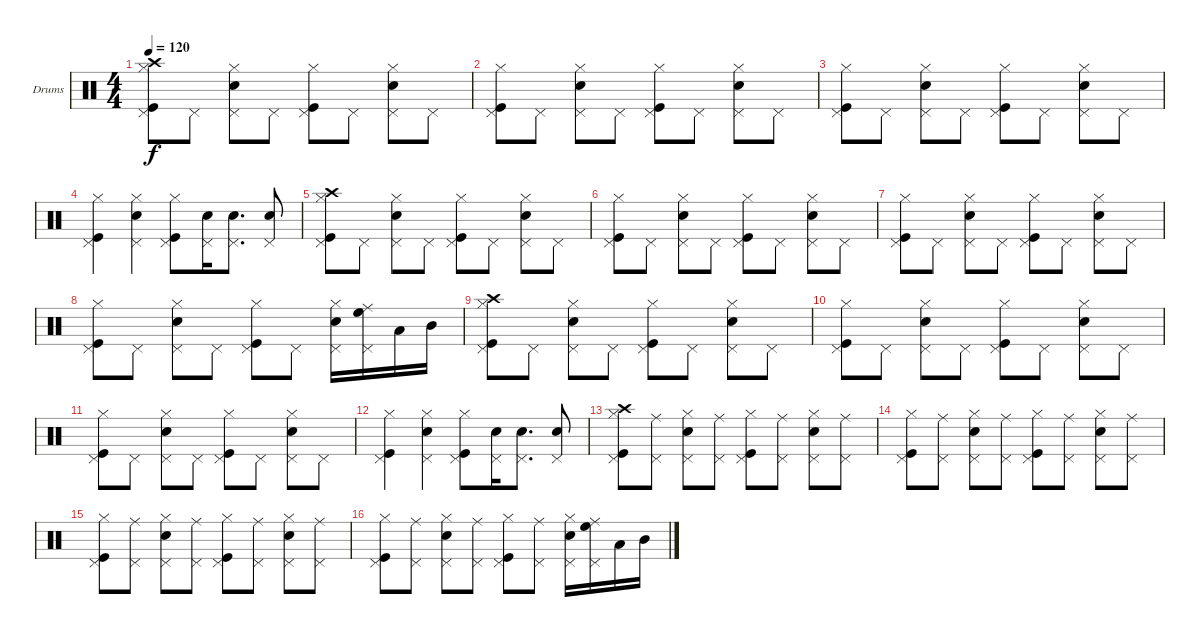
\defaultSystemsLayout 4
\bracketExtendMode groupsimilarinstruments
\firstSystemTrackNameOrientation horizontal
\otherSystemsTrackNameOrientation horizontal
\track ("Drumkit" "Drums") {instrument percussion}
\staff {score}
\articulation defaults
\ts (4 4)
\tempo 120
\clef neutral
\ks c
("Hi-Hat (closed)" "Crash high (hit)" "Kick (hit)" "Pedal Hi-Hat (hit)").8{dy f} "Pedal Hi-Hat (hit)".8 ("Snare (hit) 2" "Hi-Hat (closed)" "Pedal Hi-Hat (hit)").8 "Pedal Hi-Hat (hit)".8 ("Kick (hit)" "Hi-Hat (closed)" "Pedal Hi-Hat (hit)").8 "Pedal Hi-Hat (hit)".8 ("Snare (hit) 2" "Hi-Hat (closed)" "Pedal Hi-Hat (hit)").8 "Pedal Hi-Hat (hit)".8 |
("Hi-Hat (closed)" "Kick (hit)" "Pedal Hi-Hat (hit)").8 "Pedal Hi-Hat (hit)".8 ("Snare (hit) 2" "Hi-Hat (closed)" "Pedal Hi-Hat (hit)").8 "Pedal Hi-Hat (hit)".8 ("Kick (hit)" "Hi-Hat (closed)" "Pedal Hi-Hat (hit)").8 "Pedal Hi-Hat (hit)".8 ("Snare (hit) 2" "Hi-Hat (closed)" "Pedal Hi-Hat (hit)").8 "Pedal Hi-Hat (hit)".8 |
("Hi-Hat (closed)" "Kick (hit)" "Pedal Hi-Hat (hit)").8 "Pedal Hi-Hat (hit)".8 ("Snare (hit) 2" "Hi-Hat (closed)" "Pedal Hi-Hat (hit)").8 "Pedal Hi-Hat (hit)".8 ("Kick (hit)" "Hi-Hat (closed)" "Pedal Hi-Hat (hit)").8 "Pedal Hi-Hat (hit)".8 ("Snare (hit) 2" "Hi-Hat (closed)" "Pedal Hi-Hat (hit)").8 "Pedal Hi-Hat (hit)".8 |
("Hi-Hat (closed)" "Kick (hit)" "Pedal Hi-Hat (hit)").4 ("Hi-Hat (closed)" "Snare (hit) 2" "Pedal Hi-Hat (hit)").4 ("Hi-Hat (closed)" "Kick (hit)" "Pedal Hi-Hat (hit)").8 ("Pedal Hi-Hat (hit)" "Snare (hit) 2").16 ("Pedal Hi-Hat (hit)" "Snare (hit) 2").8{d} ("Pedal Hi-Hat (hit)" "Snare (hit) 2").8 |
("Hi-Hat (closed)" "Crash high (hit)" "Kick (hit)" "Pedal Hi-Hat (hit)").8 "Pedal Hi-Hat (hit)".8 ("Snare (hit) 2" "Hi-Hat (closed)" "Pedal Hi-Hat (hit)").8 "Pedal Hi-Hat (hit)".8 ("Kick (hit)" "Hi-Hat (closed)" "Pedal Hi-Hat (hit)").8 "Pedal Hi-Hat (hit)".8 ("Snare (hit) 2" "Hi-Hat (closed)" "Pedal Hi-Hat (hit)").8 "Pedal Hi-Hat (hit)".8 |
("Hi-Hat (closed)" "Kick (hit)" "Pedal Hi-Hat (hit)").8 "Pedal Hi-Hat (hit)".8 ("Snare (hit) 2" "Hi-Hat (closed)" "Pedal Hi-Hat (hit)").8 "Pedal Hi-Hat (hit)".8 ("Kick (hit)" "Hi-Hat (closed)" "Pedal Hi-Hat (hit)").8 "Pedal Hi-Hat (hit)".8 ("Snare (hit) 2" "Hi-Hat (closed)" "Pedal Hi-Hat (hit)").8 "Pedal Hi-Hat (hit)".8 |
("Hi-Hat (closed)" "Kick (hit)" "Pedal Hi-Hat (hit)").8 "Pedal Hi-Hat (hit)".8 ("Snare (hit) 2" "Hi-Hat (closed)" "Pedal Hi-Hat (hit)").8 "Pedal Hi-Hat (hit)".8 ("Kick (hit)" "Hi-Hat (closed)" "Pedal Hi-Hat (hit)").8 "Pedal Hi-Hat (hit)".8 ("Snare (hit) 2" "Hi-Hat (closed)" "Pedal Hi-Hat (hit)").8 "Pedal Hi-Hat (hit)".8 |
("Hi-Hat (closed)" "Kick (hit)" "Pedal Hi-Hat (hit)").8 "Pedal Hi-Hat (hit)".8 ("Snare (hit) 2" "Hi-Hat (closed)" "Pedal Hi-Hat (hit)").8 "Pedal Hi-Hat (hit)".8 ("Kick (hit)" "Hi-Hat (closed)" "Pedal Hi-Hat (hit)").8 "Pedal Hi-Hat (hit)".8 ("Snare (hit) 2" "Hi-Hat (closed)" "Pedal Hi-Hat (hit)").16 ("Pedal Hi-Hat (hit)" "Ride (middle)" "High Floor Tom (hit)").16 "Low Tom (hit)".16 "Mid Tom (hit)".16 |
("Hi-Hat (closed)" "Crash high (hit)" "Kick (hit)" "Pedal Hi-Hat (hit)").8 "Pedal Hi-Hat (hit)".8 ("Snare (hit) 2" "Hi-Hat (closed)" "Pedal Hi-Hat (hit)").8 "Pedal Hi-Hat (hit)".8 ("Kick (hit)" "Hi-Hat (closed)" "Pedal Hi-Hat (hit)").8 "Pedal Hi-Hat (hit)".8 ("Snare (hit) 2" "Hi-Hat (closed)" "Pedal Hi-Hat (hit)").8 "Pedal Hi-Hat (hit)".8 |
("Hi-Hat (closed)" "Kick (hit)" "Pedal Hi-Hat (hit)").8 "Pedal Hi-Hat (hit)".8 ("Snare (hit) 2" "Hi-Hat (closed)" "Pedal Hi-Hat (hit)").8 "Pedal Hi-Hat (hit)".8 ("Kick (hit)" "Hi-Hat (closed)" "Pedal Hi-Hat (hit)").8 "Pedal Hi-Hat (hit)".8 ("Snare (hit) 2" "Hi-Hat (closed)" "Pedal Hi-Hat (hit)").8 "Pedal Hi-Hat (hit)".8 |
("Hi-Hat (closed)" "Kick (hit)" "Pedal Hi-Hat (hit)").8 "Pedal Hi-Hat (hit)".8 ("Snare (hit) 2" "Hi-Hat (closed)" "Pedal Hi-Hat (hit)").8 "Pedal Hi-Hat (hit)".8 ("Kick (hit)" "Hi-Hat (closed)" "Pedal Hi-Hat (hit)").8 "Pedal Hi-Hat (hit)".8 ("Snare (hit) 2" "Hi-Hat (closed)" "Pedal Hi-Hat (hit)").8 "Pedal Hi-Hat (hit)".8 |
("Hi-Hat (closed)" "Kick (hit)" "Pedal Hi-Hat (hit)").4 ("Hi-Hat (closed)" "Snare (hit) 2" "Pedal Hi-Hat (hit)").4 ("Hi-Hat (closed)" "Kick (hit)" "Pedal Hi-Hat (hit)").8 ("Pedal Hi-Hat (hit)" "Snare (hit) 2").16 ("Pedal Hi-Hat (hit)" "Snare (hit) 2").8{d} ("Pedal Hi-Hat (hit)" "Snare (hit) 2").8 |
("Hi-Hat (closed)" "Crash high (hit)" "Kick (hit)" "Pedal Hi-Hat (hit)").8 ("Pedal Hi-Hat (hit)" "Ride (middle)").8 ("Snare (hit) 2" "Hi-Hat (closed)" "Pedal Hi-Hat (hit)").8 ("Pedal Hi-Hat (hit)" "Ride (middle)").8 ("Kick (hit)" "Hi-Hat (closed)" "Pedal Hi-Hat (hit)").8 ("Pedal Hi-Hat (hit)" "Ride (middle)").8 ("Snare (hit) 2" "Hi-Hat (closed)" "Pedal Hi-Hat (hit)").8 ("Pedal Hi-Hat (hit)" "Ride (middle)").8 |
("Hi-Hat (closed)" "Kick (hit)" "Pedal Hi-Hat (hit)").8 ("Pedal Hi-Hat (hit)" "Ride (middle)").8 ("Snare (hit) 2" "Hi-Hat (closed)" "Pedal Hi-Hat (hit)").8 ("Pedal Hi-Hat (hit)" "Ride (middle)").8 ("Kick (hit)" "Hi-Hat (closed)" "Pedal Hi-Hat (hit)").8 ("Pedal Hi-Hat (hit)" "Ride (middle)").8 ("Snare (hit) 2" "Hi-Hat (closed)" "Pedal Hi-Hat (hit)").8 ("Pedal Hi-Hat (hit)" "Ride (middle)").8 |
("Hi-Hat (closed)" "Kick (hit)" "Pedal Hi-Hat (hit)").8 ("Pedal Hi-Hat (hit)" "Ride (middle)").8 ("Snare (hit) 2" "Hi-Hat (closed)" "Pedal Hi-Hat (hit)").8 ("Pedal Hi-Hat (hit)" "Ride (middle)").8 ("Kick (hit)" "Hi-Hat (closed)" "Pedal Hi-Hat (hit)").8 ("Pedal Hi-Hat (hit)" "Ride (middle)").8 ("Snare (hit) 2" "Hi-Hat (closed)" "Pedal Hi-Hat (hit)").8 ("Pedal Hi-Hat (hit)" "Ride (middle)").8 |
("Hi-Hat (closed)" "Kick (hit)" "Pedal Hi-Hat (hit)").8 ("Pedal Hi-Hat (hit)" "Ride (middle)").8 ("Snare (hit) 2" "Hi-Hat (closed)" "Pedal Hi-Hat (hit)").8 ("Pedal Hi-Hat (hit)" "Ride (middle)").8 ("Kick (hit)" "Hi-Hat (closed)" "Pedal Hi-Hat (hit)").8 ("Pedal Hi-Hat (hit)" "Ride (middle)").8 ("Snare (hit) 2" "Hi-Hat (closed)" "Pedal Hi-Hat (hit)").16 ("Pedal Hi-Hat (hit)" "Ride (middle)" "High Floor Tom (hit)").16 "Low Tom (hit)".16 "Mid Tom (hit)".16
